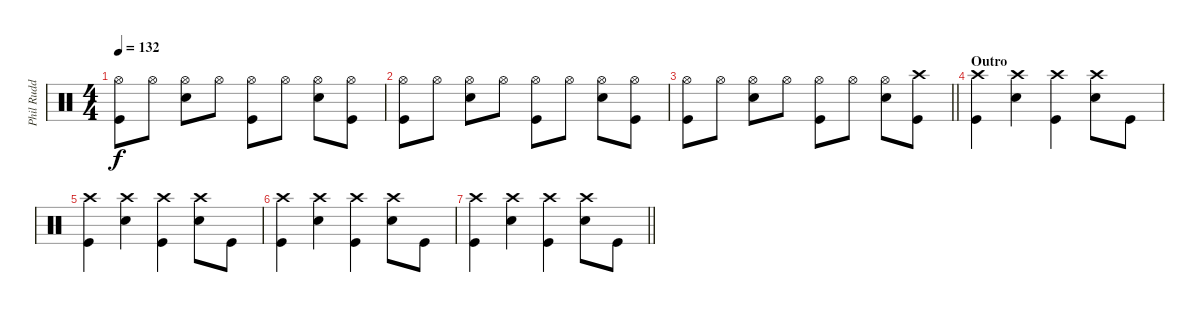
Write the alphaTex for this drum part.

\track ("Phil Rudd" "Phil Rudd") {instrument percussion}
\staff {score}
\articulation defaults
\ts (4 4)
\tempo 132
\clef neutral
\ks c
("Hi-Hat (open)" "Kick (hit)").8{dy f} "Hi-Hat (open)".8 ("Hi-Hat (open)" "Snare (hit) 2").8 "Hi-Hat (open)".8 ("Hi-Hat (open)" "Kick (hit)").8 "Hi-Hat (open)".8 ("Hi-Hat (open)" "Snare (hit) 2").8 ("Hi-Hat (open)" "Kick (hit)").8 |
("Hi-Hat (open)" "Kick (hit)").8 "Hi-Hat (open)".8 ("Hi-Hat (open)" "Snare (hit) 2").8 "Hi-Hat (open)".8 ("Hi-Hat (open)" "Kick (hit)").8 "Hi-Hat (open)".8 ("Hi-Hat (open)" "Snare (hit) 2").8 ("Hi-Hat (open)" "Kick (hit)").8 |
\barLineRight lightlight
("Hi-Hat (open)" "Kick (hit)").8 "Hi-Hat (open)".8 ("Hi-Hat (open)" "Snare (hit) 2").8 "Hi-Hat (open)".8 ("Hi-Hat (open)" "Kick (hit)").8 "Hi-Hat (open)".8 ("Hi-Hat (open)" "Snare (hit) 2").8 ("Crash high (hit)" "Kick (hit)").8 |
\section ("" "Outro")
("Crash high (hit)" "Kick (hit)").4 ("Crash high (hit)" "Snare (hit) 2").4 ("Crash high (hit)" "Kick (hit)").4 ("Crash high (hit)" "Snare (hit) 2").8 "Kick (hit)".8 |
("Crash high (hit)" "Kick (hit)").4 ("Crash high (hit)" "Snare (hit) 2").4 ("Crash high (hit)" "Kick (hit)").4 ("Crash high (hit)" "Snare (hit) 2").8 "Kick (hit)".8 |
("Crash high (hit)" "Kick (hit)").4 ("Crash high (hit)" "Snare (hit) 2").4 ("Crash high (hit)" "Kick (hit)").4 ("Crash high (hit)" "Snare (hit) 2").8 "Kick (hit)".8 |
\barLineRight lightlight
("Crash high (hit)" "Kick (hit)").4 ("Crash high (hit)" "Snare (hit) 2").4 ("Crash high (hit)" "Kick (hit)").4 ("Crash high (hit)" "Snare (hit) 2").8 "Kick (hit)".8
